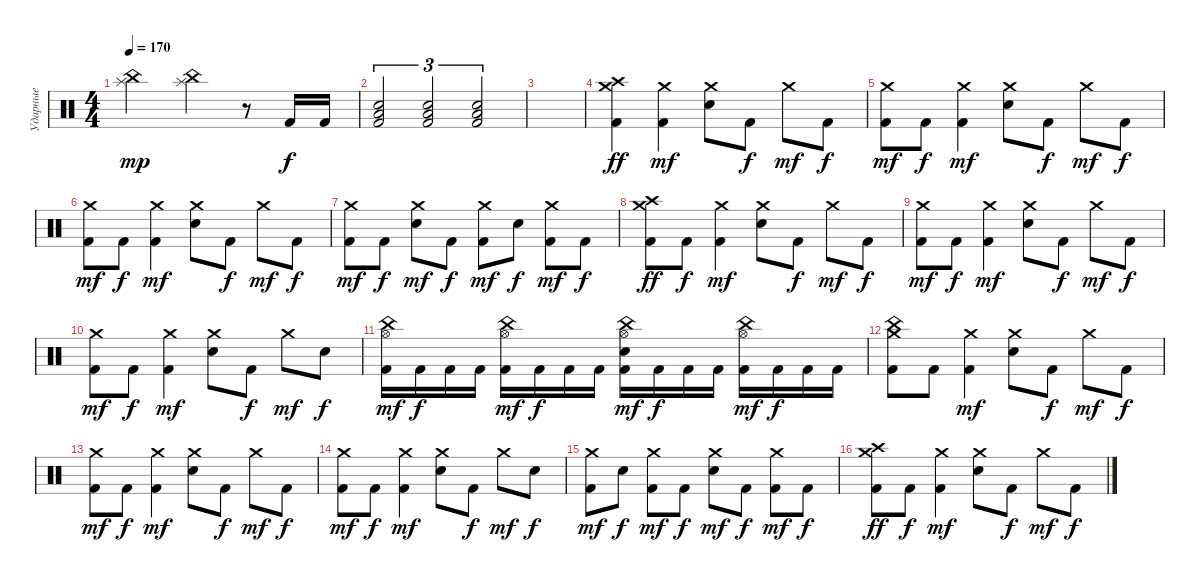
\track ("Ударные" "Ударные") {instrument percussion}
\staff {score}
\articulation defaults
\ts (4 4)
\tempo 170
\clef neutral
\ks c
("China (hit)" "Splash (hit)").2{dy mp} ("China (hit)" "Splash (hit)").4 r.8 "Kick (hit) 2".16{dy f} "Kick (hit) 2".16 |
("Electric Snare (hit)" "Low Tom (hit)" "Kick (hit) 2").2{tu (3 2)} ("Electric Snare (hit)" "Low Tom (hit)" "Kick (hit) 2").2{tu (3 2)} ("Electric Snare (hit)" "Low Tom (hit)" "Kick (hit) 2").2{tu (3 2)} |
|
("Crash medium (hit)" "Crash high (hit)" "Kick (hit) 2").4{dy ff} ("Crash medium (hit)" "Kick (hit) 2").4{dy mf} ("Crash medium (hit)" "Electric Snare (hit)").8 "Kick (hit) 2".8{dy f} "Crash medium (hit)".8{dy mf} "Kick (hit) 2".8{dy f} |
("Crash medium (hit)" "Kick (hit) 2").8{dy mf} "Kick (hit) 2".8{dy f} ("Crash medium (hit)" "Kick (hit) 2").4{dy mf} ("Crash medium (hit)" "Electric Snare (hit)").8 "Kick (hit) 2".8{dy f} "Crash medium (hit)".8{dy mf} "Kick (hit) 2".8{dy f} |
("Crash medium (hit)" "Kick (hit) 2").8{dy mf} "Kick (hit) 2".8{dy f} ("Crash medium (hit)" "Kick (hit) 2").4{dy mf} ("Crash medium (hit)" "Electric Snare (hit)").8 "Kick (hit) 2".8{dy f} "Crash medium (hit)".8{dy mf} "Kick (hit) 2".8{dy f} |
("Crash medium (hit)" "Kick (hit) 2").8{dy mf} "Kick (hit) 2".8{dy f} ("Crash medium (hit)" "Electric Snare (hit)").8{dy mf} "Kick (hit) 2".8{dy f} ("Crash medium (hit)" "Kick (hit) 2").8{dy mf} "Electric Snare (hit)".8{dy f} ("Crash medium (hit)" "Kick (hit) 2").8{dy mf} "Kick (hit) 2".8{dy f} |
("Crash medium (hit)" "Crash high (hit)" "Kick (hit) 2").8{dy ff} "Kick (hit) 2".8{dy f} ("Crash medium (hit)" "Kick (hit) 2").4{dy mf} ("Crash medium (hit)" "Electric Snare (hit)").8 "Kick (hit) 2".8{dy f} "Crash medium (hit)".8{dy mf} "Kick (hit) 2".8{dy f} |
("Crash medium (hit)" "Kick (hit) 2").8{dy mf} "Kick (hit) 2".8{dy f} ("Crash medium (hit)" "Kick (hit) 2").4{dy mf} ("Crash medium (hit)" "Electric Snare (hit)").8 "Kick (hit) 2".8{dy f} "Crash medium (hit)".8{dy mf} "Kick (hit) 2".8{dy f} |
("Crash medium (hit)" "Kick (hit) 2").8{dy mf} "Kick (hit) 2".8{dy f} ("Crash medium (hit)" "Kick (hit) 2").4{dy mf} ("Crash medium (hit)" "Electric Snare (hit)").8 "Kick (hit) 2".8{dy f} "Crash medium (hit)".8{dy mf} "Electric Snare (hit)".8{dy f} |
("China (hit)" "Hi-Hat (open)" "Kick (hit) 2").16{dy mf} "Kick (hit) 2".16{dy f} "Kick (hit) 2".16 "Kick (hit) 2".16 ("China (hit)" "Hi-Hat (open)" "Kick (hit) 2").16{dy mf} "Kick (hit) 2".16{dy f} "Kick (hit) 2".16 "Kick (hit) 2".16 ("China (hit)" "Hi-Hat (open)" "Electric Snare (hit)" "Kick (hit) 2").16{dy mf} "Kick (hit) 2".16{dy f} "Kick (hit) 2".16 "Kick (hit) 2".16 ("China (hit)" "Hi-Hat (open)" "Kick (hit) 2").16{dy mf} "Kick (hit) 2".16{dy f} "Kick (hit) 2".16 "Kick (hit) 2".16 |
("Crash medium (hit)" "China (hit)" "Kick (hit) 2").8 "Kick (hit) 2".8 ("Crash medium (hit)" "Kick (hit) 2").4{dy mf} ("Crash medium (hit)" "Electric Snare (hit)").8 "Kick (hit) 2".8{dy f} "Crash medium (hit)".8{dy mf} "Kick (hit) 2".8{dy f} |
("Crash medium (hit)" "Kick (hit) 2").8{dy mf} "Kick (hit) 2".8{dy f} ("Crash medium (hit)" "Kick (hit) 2").4{dy mf} ("Crash medium (hit)" "Electric Snare (hit)").8 "Kick (hit) 2".8{dy f} "Crash medium (hit)".8{dy mf} "Kick (hit) 2".8{dy f} |
("Crash medium (hit)" "Kick (hit) 2").8{dy mf} "Kick (hit) 2".8{dy f} ("Crash medium (hit)" "Kick (hit) 2").4{dy mf} ("Crash medium (hit)" "Electric Snare (hit)").8 "Kick (hit) 2".8{dy f} "Crash medium (hit)".8{dy mf} "Electric Snare (hit)".8{dy f} |
("Crash medium (hit)" "Kick (hit) 2").8{dy mf} "Electric Snare (hit)".8{dy f} ("Crash medium (hit)" "Kick (hit) 2").8{dy mf} "Kick (hit) 2".8{dy f} ("Crash medium (hit)" "Electric Snare (hit)").8{dy mf} "Kick (hit) 2".8{dy f} ("Crash medium (hit)" "Kick (hit) 2").8{dy mf} "Kick (hit) 2".8{dy f} |
("Crash medium (hit)" "Crash high (hit)" "Kick (hit) 2").8{dy ff} "Kick (hit) 2".8{dy f} ("Crash medium (hit)" "Kick (hit) 2").4{dy mf} ("Crash medium (hit)" "Electric Snare (hit)").8 "Kick (hit) 2".8{dy f} "Crash medium (hit)".8{dy mf} "Kick (hit) 2".8{dy f}
